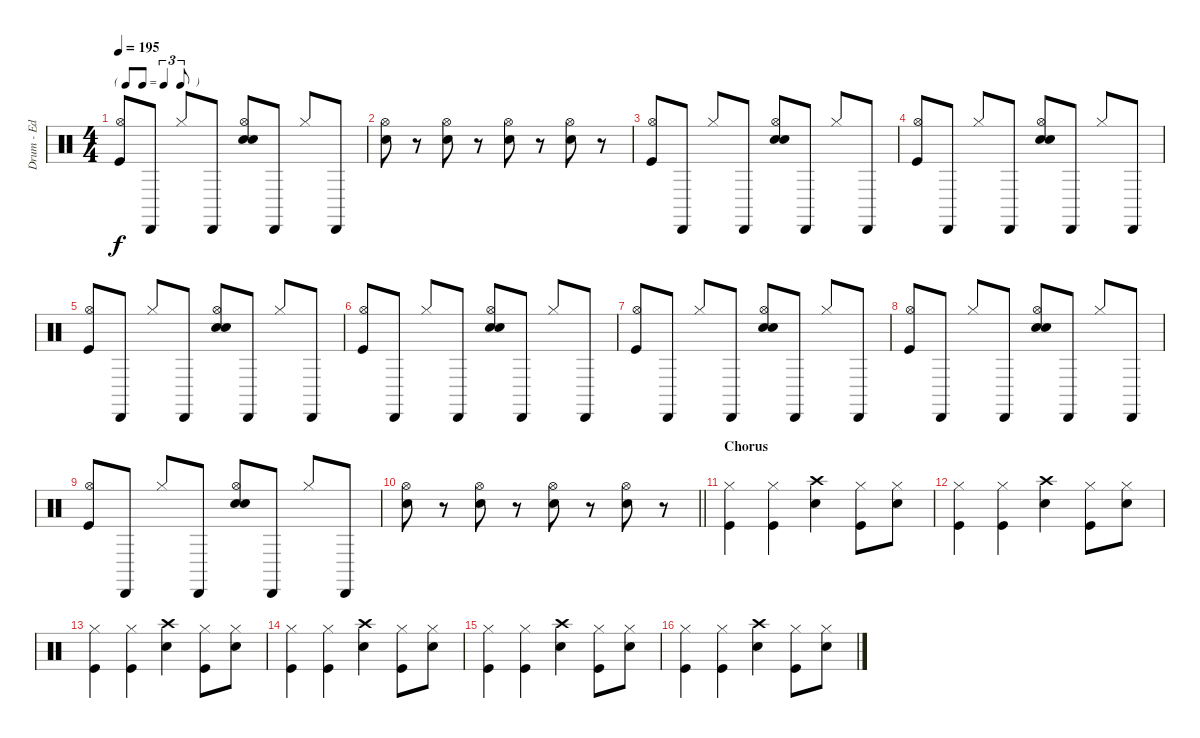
\track ("Drum - Ed" "Drum - Ed") {instrument percussion}
\staff {score}
\articulation defaults
\ts (4 4)
\tf triplet8th
\tempo 195
\clef neutral
\ks c
("Hi-Hat (open)" "Kick (hit)").8{dy f} "Cabasa (hit)".8 "Hi-Hat (closed)".8 "Cabasa (hit)".8 ("Hi-Hat (open)" "Hand Clap (hit)" "Electric Snare (hit)").8 "Cabasa (hit)".8 "Hi-Hat (closed)".8 "Cabasa (hit)".8 |
("Hi-Hat (open)" "Electric Snare (hit)").8 r.8 ("Hi-Hat (open)" "Electric Snare (hit)").8 r.8 ("Hi-Hat (open)" "Electric Snare (hit)").8 r.8 ("Hi-Hat (open)" "Electric Snare (hit)").8 r.8 |
("Hi-Hat (open)" "Kick (hit)").8 "Cabasa (hit)".8 "Hi-Hat (closed)".8 "Cabasa (hit)".8 ("Hi-Hat (open)" "Hand Clap (hit)" "Electric Snare (hit)").8 "Cabasa (hit)".8 "Hi-Hat (closed)".8 "Cabasa (hit)".8 |
("Hi-Hat (open)" "Kick (hit)").8 "Cabasa (hit)".8 "Hi-Hat (closed)".8 "Cabasa (hit)".8 ("Hi-Hat (open)" "Hand Clap (hit)" "Electric Snare (hit)").8 "Cabasa (hit)".8 "Hi-Hat (closed)".8 "Cabasa (hit)".8 |
("Hi-Hat (open)" "Kick (hit)").8 "Cabasa (hit)".8 "Hi-Hat (closed)".8 "Cabasa (hit)".8 ("Hi-Hat (open)" "Hand Clap (hit)" "Electric Snare (hit)").8 "Cabasa (hit)".8 "Hi-Hat (closed)".8 "Cabasa (hit)".8 |
("Hi-Hat (open)" "Kick (hit)").8 "Cabasa (hit)".8 "Hi-Hat (closed)".8 "Cabasa (hit)".8 ("Hi-Hat (open)" "Hand Clap (hit)" "Electric Snare (hit)").8 "Cabasa (hit)".8 "Hi-Hat (closed)".8 "Cabasa (hit)".8 |
("Hi-Hat (open)" "Kick (hit)").8 "Cabasa (hit)".8 "Hi-Hat (closed)".8 "Cabasa (hit)".8 ("Hi-Hat (open)" "Hand Clap (hit)" "Electric Snare (hit)").8 "Cabasa (hit)".8 "Hi-Hat (closed)".8 "Cabasa (hit)".8 |
("Hi-Hat (open)" "Kick (hit)").8 "Cabasa (hit)".8 "Hi-Hat (closed)".8 "Cabasa (hit)".8 ("Hi-Hat (open)" "Hand Clap (hit)" "Electric Snare (hit)").8 "Cabasa (hit)".8 "Hi-Hat (closed)".8 "Cabasa (hit)".8 |
("Hi-Hat (open)" "Kick (hit)").8 "Cabasa (hit)".8 "Hi-Hat (closed)".8 "Cabasa (hit)".8 ("Hi-Hat (open)" "Hand Clap (hit)" "Electric Snare (hit)").8 "Cabasa (hit)".8 "Hi-Hat (closed)".8 "Cabasa (hit)".8 |
\barLineRight lightlight
("Hi-Hat (open)" "Electric Snare (hit)").8 r.8 ("Hi-Hat (open)" "Electric Snare (hit)").8 r.8 ("Hi-Hat (open)" "Electric Snare (hit)").8 r.8 ("Hi-Hat (open)" "Electric Snare (hit)").8 r.8 |
\section ("" "Chorus")
("Hi-Hat (closed)" "Kick (hit)").4 ("Hi-Hat (closed)" "Kick (hit)").4 ("Crash high (hit)" "Electric Snare (hit)").4 ("Hi-Hat (closed)" "Kick (hit)").8 ("Hi-Hat (closed)" "Electric Snare (hit)").8 |
("Hi-Hat (closed)" "Kick (hit)").4 ("Hi-Hat (closed)" "Kick (hit)").4 ("Crash high (hit)" "Electric Snare (hit)").4 ("Hi-Hat (closed)" "Kick (hit)").8 ("Hi-Hat (closed)" "Electric Snare (hit)").8 |
("Hi-Hat (closed)" "Kick (hit)").4 ("Hi-Hat (closed)" "Kick (hit)").4 ("Crash high (hit)" "Electric Snare (hit)").4 ("Hi-Hat (closed)" "Kick (hit)").8 ("Hi-Hat (closed)" "Electric Snare (hit)").8 |
("Hi-Hat (closed)" "Kick (hit)").4 ("Hi-Hat (closed)" "Kick (hit)").4 ("Crash high (hit)" "Electric Snare (hit)").4 ("Hi-Hat (closed)" "Kick (hit)").8 ("Hi-Hat (closed)" "Electric Snare (hit)").8 |
("Hi-Hat (closed)" "Kick (hit)").4 ("Hi-Hat (closed)" "Kick (hit)").4 ("Crash high (hit)" "Electric Snare (hit)").4 ("Hi-Hat (closed)" "Kick (hit)").8 ("Hi-Hat (closed)" "Electric Snare (hit)").8 |
("Hi-Hat (closed)" "Kick (hit)").4 ("Hi-Hat (closed)" "Kick (hit)").4 ("Crash high (hit)" "Electric Snare (hit)").4 ("Hi-Hat (closed)" "Kick (hit)").8 ("Hi-Hat (closed)" "Electric Snare (hit)").8
